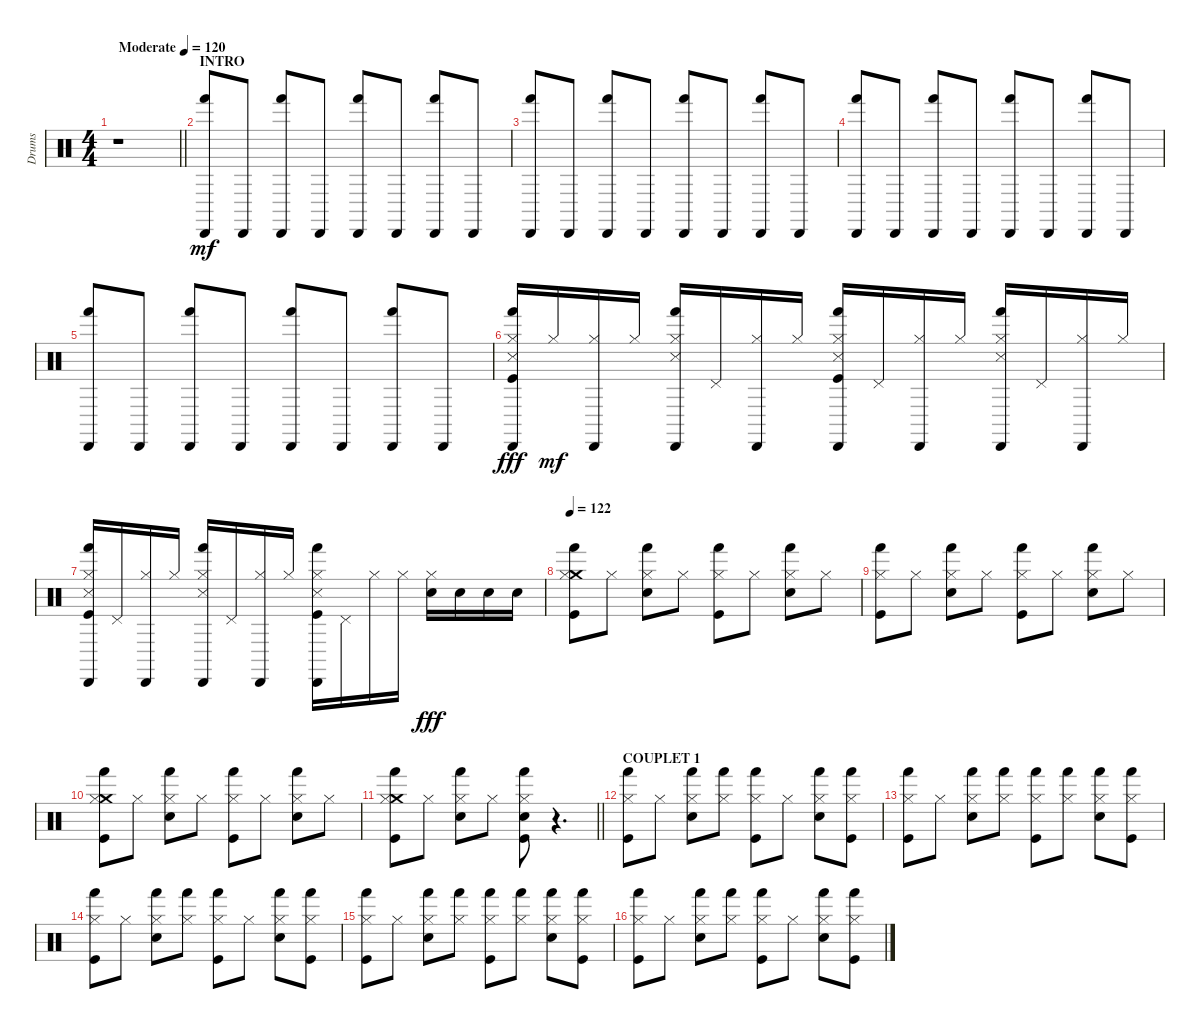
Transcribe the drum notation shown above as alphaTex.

\track ("Drums" "Drums") {instrument percussion}
\staff {score}
\articulation defaults
\ts (4 4)
\tempo (120 "Moderate")
\clef neutral
\barLineRight lightlight
\ks c
r.1{dy mf} |
\section ("" "INTRO")
("Hand (hit)" "Cabasa (hit)").8 "Cabasa (hit)".8 ("Hand (hit)" "Cabasa (hit)").8 "Cabasa (hit)".8 ("Hand (hit)" "Cabasa (hit)").8 "Cabasa (hit)".8 ("Hand (hit)" "Cabasa (hit)").8 "Cabasa (hit)".8 |
("Hand (hit)" "Cabasa (hit)").8 "Cabasa (hit)".8 ("Hand (hit)" "Cabasa (hit)").8 "Cabasa (hit)".8 ("Hand (hit)" "Cabasa (hit)").8 "Cabasa (hit)".8 ("Hand (hit)" "Cabasa (hit)").8 "Cabasa (hit)".8 |
("Hand (hit)" "Cabasa (hit)").8 "Cabasa (hit)".8 ("Hand (hit)" "Cabasa (hit)").8 "Cabasa (hit)".8 ("Hand (hit)" "Cabasa (hit)").8 "Cabasa (hit)".8 ("Hand (hit)" "Cabasa (hit)").8 "Cabasa (hit)".8 |
("Hand (hit)" "Cabasa (hit)").8 "Cabasa (hit)".8 ("Hand (hit)" "Cabasa (hit)").8 "Cabasa (hit)".8 ("Hand (hit)" "Cabasa (hit)").8 "Cabasa (hit)".8 ("Hand (hit)" "Cabasa (hit)").8 "Cabasa (hit)".8 |
("Hi-Hat (closed)" "Cabasa (hit)" "Snare (side stick) 3" "Hand (hit)" "Kick (hit)").16{dy fff} "Hi-Hat (closed)".16{dy mf} ("Hi-Hat (closed)" "Cabasa (hit)").16 "Hi-Hat (closed)".16 ("Cabasa (hit)" "Hand (hit)" "Snare (side stick) 3" "Hi-Hat (closed)").16 "Pedal Hi-Hat (hit)".16 ("Cabasa (hit)" "Hi-Hat (closed)").16 "Hi-Hat (closed)".16 ("Cabasa (hit)" "Hand (hit)" "Hi-Hat (closed)" "Kick (hit)" "Snare (side stick) 3").16 "Pedal Hi-Hat (hit)".16 ("Hi-Hat (closed)" "Cabasa (hit)").16 "Hi-Hat (closed)".16 ("Hand (hit)" "Snare (side stick) 3" "Hi-Hat (closed)" "Cabasa (hit)").16 "Pedal Hi-Hat (hit)".16 ("Cabasa (hit)" "Hi-Hat (closed)").16 "Hi-Hat (closed)".16 |
("Hand (hit)" "Kick (hit)" "Cabasa (hit)" "Snare (side stick) 3" "Hi-Hat (closed)").16 "Pedal Hi-Hat (hit)".16 ("Cabasa (hit)" "Hi-Hat (closed)").16 "Hi-Hat (closed)".16 ("Hand (hit)" "Snare (side stick) 3" "Cabasa (hit)" "Hi-Hat (closed)").16 "Pedal Hi-Hat (hit)".16 ("Cabasa (hit)" "Hi-Hat (closed)").16 "Hi-Hat (closed)".16 ("Cabasa (hit)" "Hand (hit)" "Snare (side stick) 3" "Kick (hit)" "Hi-Hat (closed)").16 "Pedal Hi-Hat (hit)".16 "Hi-Hat (closed)".16 "Hi-Hat (closed)".16 ("Electric Snare (hit)" "Hi-Hat (closed)").16{dy fff} "Electric Snare (hit)".16 "Electric Snare (hit)".16 "Electric Snare (hit)".16 |
\tempo 122
("Crash medium (hit)" "Hand (hit)" "Hi-Hat (closed)" "Kick (hit)").8 "Hi-Hat (closed)".8 ("Electric Snare (hit)" "Hi-Hat (closed)" "Hand (hit)").8 "Hi-Hat (closed)".8 ("Hi-Hat (closed)" "Hand (hit)" "Kick (hit)").8 "Hi-Hat (closed)".8 ("Electric Snare (hit)" "Hand (hit)" "Hi-Hat (closed)").8 "Hi-Hat (closed)".8 |
("Hi-Hat (closed)" "Hand (hit)" "Kick (hit)").8 "Hi-Hat (closed)".8 ("Hand (hit)" "Hi-Hat (closed)" "Electric Snare (hit)").8 "Hi-Hat (closed)".8 ("Hi-Hat (closed)" "Hand (hit)" "Kick (hit)").8 "Hi-Hat (closed)".8 ("Hand (hit)" "Hi-Hat (closed)" "Electric Snare (hit)").8 "Hi-Hat (closed)".8 |
("Crash medium (hit)" "Hand (hit)" "Hi-Hat (closed)" "Kick (hit)").8 "Hi-Hat (closed)".8 ("Electric Snare (hit)" "Hi-Hat (closed)" "Hand (hit)").8 "Hi-Hat (closed)".8 ("Hi-Hat (closed)" "Hand (hit)" "Kick (hit)").8 "Hi-Hat (closed)".8 ("Electric Snare (hit)" "Hand (hit)" "Hi-Hat (closed)").8 "Hi-Hat (closed)".8 |
\barLineRight lightlight
("Crash medium (hit)" "Hand (hit)" "Hi-Hat (closed)" "Kick (hit)").8 "Hi-Hat (closed)".8 ("Electric Snare (hit)" "Hi-Hat (closed)" "Hand (hit)").8 "Hi-Hat (closed)".8 ("Hand (hit)" "Hi-Hat (closed)" "Kick (hit)" "Electric Snare (hit)").8 r.4{d} |
\section ("" "COUPLET 1")
("Hi-Hat (closed)" "Kick (hit)" "Hand (hit)").8 "Hi-Hat (closed)".8 ("Electric Snare (hit)" "Hi-Hat (closed)" "Hand (hit)").8 ("Hand (hit)" "Hi-Hat (closed)").8 ("Hand (hit)" "Kick (hit)" "Hi-Hat (closed)").8 "Hi-Hat (closed)".8 ("Hi-Hat (closed)" "Hand (hit)" "Electric Snare (hit)").8 ("Hi-Hat (closed)" "Hand (hit)" "Kick (hit)").8 |
("Hi-Hat (closed)" "Kick (hit)" "Hand (hit)").8 "Hi-Hat (closed)".8 ("Electric Snare (hit)" "Hand (hit)" "Hi-Hat (closed)").8 ("Hand (hit)" "Hi-Hat (closed)").8 ("Hand (hit)" "Hi-Hat (closed)" "Kick (hit)").8 ("Hand (hit)" "Hi-Hat (closed)").8 ("Hi-Hat (closed)" "Hand (hit)" "Electric Snare (hit)").8 ("Hand (hit)" "Hi-Hat (closed)" "Kick (hit)").8 |
("Hi-Hat (closed)" "Kick (hit)" "Hand (hit)").8 "Hi-Hat (closed)".8 ("Electric Snare (hit)" "Hi-Hat (closed)" "Hand (hit)").8 ("Hand (hit)" "Hi-Hat (closed)").8 ("Hand (hit)" "Kick (hit)" "Hi-Hat (closed)").8 "Hi-Hat (closed)".8 ("Hi-Hat (closed)" "Hand (hit)" "Electric Snare (hit)").8 ("Hi-Hat (closed)" "Hand (hit)" "Kick (hit)").8 |
("Hi-Hat (closed)" "Kick (hit)" "Hand (hit)").8 "Hi-Hat (closed)".8 ("Electric Snare (hit)" "Hand (hit)" "Hi-Hat (closed)").8 ("Hand (hit)" "Hi-Hat (closed)").8 ("Hand (hit)" "Hi-Hat (closed)" "Kick (hit)").8 ("Hand (hit)" "Hi-Hat (closed)").8 ("Hi-Hat (closed)" "Hand (hit)" "Electric Snare (hit)").8 ("Hand (hit)" "Hi-Hat (closed)" "Kick (hit)").8 |
("Hi-Hat (closed)" "Kick (hit)" "Hand (hit)").8 "Hi-Hat (closed)".8 ("Electric Snare (hit)" "Hi-Hat (closed)" "Hand (hit)").8 ("Hand (hit)" "Hi-Hat (closed)").8 ("Hand (hit)" "Kick (hit)" "Hi-Hat (closed)").8 "Hi-Hat (closed)".8 ("Hi-Hat (closed)" "Hand (hit)" "Electric Snare (hit)").8 ("Hi-Hat (closed)" "Hand (hit)" "Kick (hit)").8
